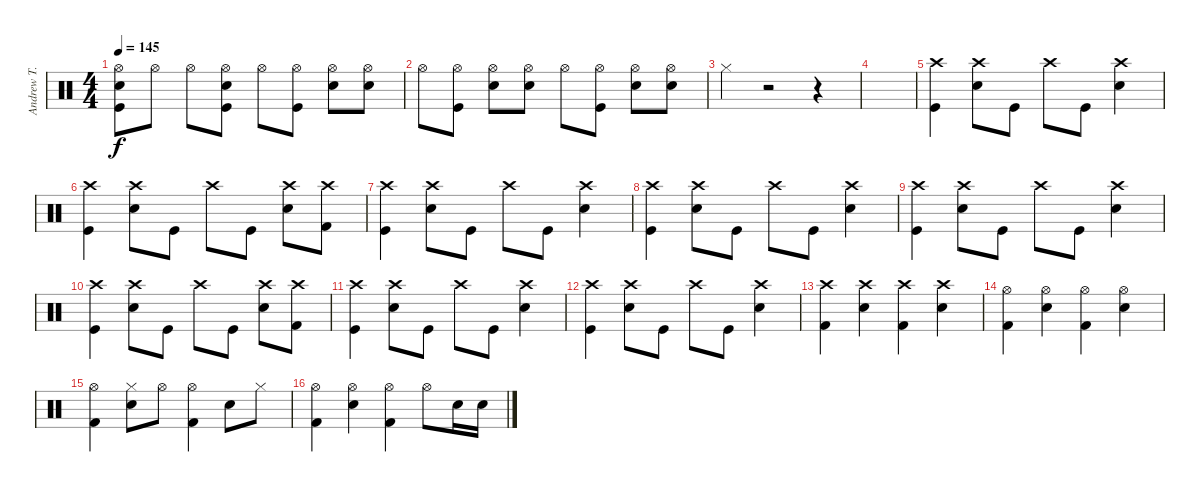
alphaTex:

\track ("Andrew T." "Andrew T.") {instrument percussion}
\staff {score}
\articulation defaults
\ts (4 4)
\tempo 145
\clef neutral
\ks c
("Hi-Hat (open)" "Electric Snare (hit)" "Kick (hit)").8{dy f} "Hi-Hat (open)".8 "Hi-Hat (open)".8 ("Hi-Hat (open)" "Electric Snare (hit)" "Kick (hit)").8 "Hi-Hat (open)".8 ("Hi-Hat (open)" "Kick (hit)").8 ("Hi-Hat (open)" "Electric Snare (hit)").8 ("Hi-Hat (open)" "Electric Snare (hit)").8 |
"Hi-Hat (open)".8 ("Hi-Hat (open)" "Kick (hit)").8 ("Hi-Hat (open)" "Electric Snare (hit)").8 ("Hi-Hat (open)" "Electric Snare (hit)").8 "Hi-Hat (open)".8 ("Hi-Hat (open)" "Kick (hit)").8 ("Hi-Hat (open)" "Electric Snare (hit)").8 ("Hi-Hat (open)" "Electric Snare (hit)").8 |
"Hi-Hat (closed)".4 r.2 r.4 |
|
("Crash high (hit)" "Kick (hit)").4 ("Crash high (hit)" "Snare (hit) 2").8 "Kick (hit)".8 "Crash high (hit)".8 "Kick (hit)".8 ("Crash high (hit)" "Snare (hit) 2").4 |
("Crash high (hit)" "Kick (hit)").4 ("Crash high (hit)" "Snare (hit) 2").8 "Kick (hit)".8 "Crash high (hit)".8 "Kick (hit)".8 ("Crash high (hit)" "Snare (hit) 2").8 ("Kick (hit) 2" "Crash high (hit)").8 |
("Crash high (hit)" "Kick (hit)").4 ("Crash high (hit)" "Snare (hit) 2").8 "Kick (hit)".8 "Crash high (hit)".8 "Kick (hit)".8 ("Crash high (hit)" "Snare (hit) 2").4 |
("Crash high (hit)" "Kick (hit)").4 ("Crash high (hit)" "Snare (hit) 2").8 "Kick (hit)".8 "Crash high (hit)".8 "Kick (hit)".8 ("Crash high (hit)" "Snare (hit) 2").4 |
("Crash high (hit)" "Kick (hit)").4 ("Crash high (hit)" "Snare (hit) 2").8 "Kick (hit)".8 "Crash high (hit)".8 "Kick (hit)".8 ("Crash high (hit)" "Snare (hit) 2").4 |
("Crash high (hit)" "Kick (hit)").4 ("Crash high (hit)" "Snare (hit) 2").8 "Kick (hit)".8 "Crash high (hit)".8 "Kick (hit)".8 ("Crash high (hit)" "Snare (hit) 2").8 ("Kick (hit) 2" "Crash high (hit)").8 |
("Crash high (hit)" "Kick (hit)").4 ("Crash high (hit)" "Snare (hit) 2").8 "Kick (hit)".8 "Crash high (hit)".8 "Kick (hit)".8 ("Crash high (hit)" "Snare (hit) 2").4 |
("Crash high (hit)" "Kick (hit)").4 ("Crash high (hit)" "Snare (hit) 2").8 "Kick (hit)".8 "Crash high (hit)".8 "Kick (hit)".8 ("Crash high (hit)" "Snare (hit) 2").4 |
("Crash high (hit)" "Kick (hit) 2").4 ("Crash high (hit)" "Electric Snare (hit)").4 ("Crash high (hit)" "Kick (hit) 2").4 ("Crash high (hit)" "Electric Snare (hit)").4 |
("Kick (hit) 2" "Hi-Hat (open)").4 ("Electric Snare (hit)" "Hi-Hat (open)").4 ("Kick (hit) 2" "Hi-Hat (open)").4 ("Electric Snare (hit)" "Hi-Hat (open)").4 |
("Hi-Hat (open)" "Kick (hit) 2").4 ("Hi-Hat (closed)" "Electric Snare (hit)").8 "Hi-Hat (open)".8 ("Kick (hit) 2" "Hi-Hat (open)").4 "Electric Snare (hit)".8 "Hi-Hat (closed)".8 |
("Hi-Hat (open)" "Kick (hit) 2").4 ("Hi-Hat (open)" "Electric Snare (hit)").4 ("Hi-Hat (open)" "Kick (hit) 2").4 "Hi-Hat (open)".8 "Electric Snare (hit)".16 "Electric Snare (hit)".16
